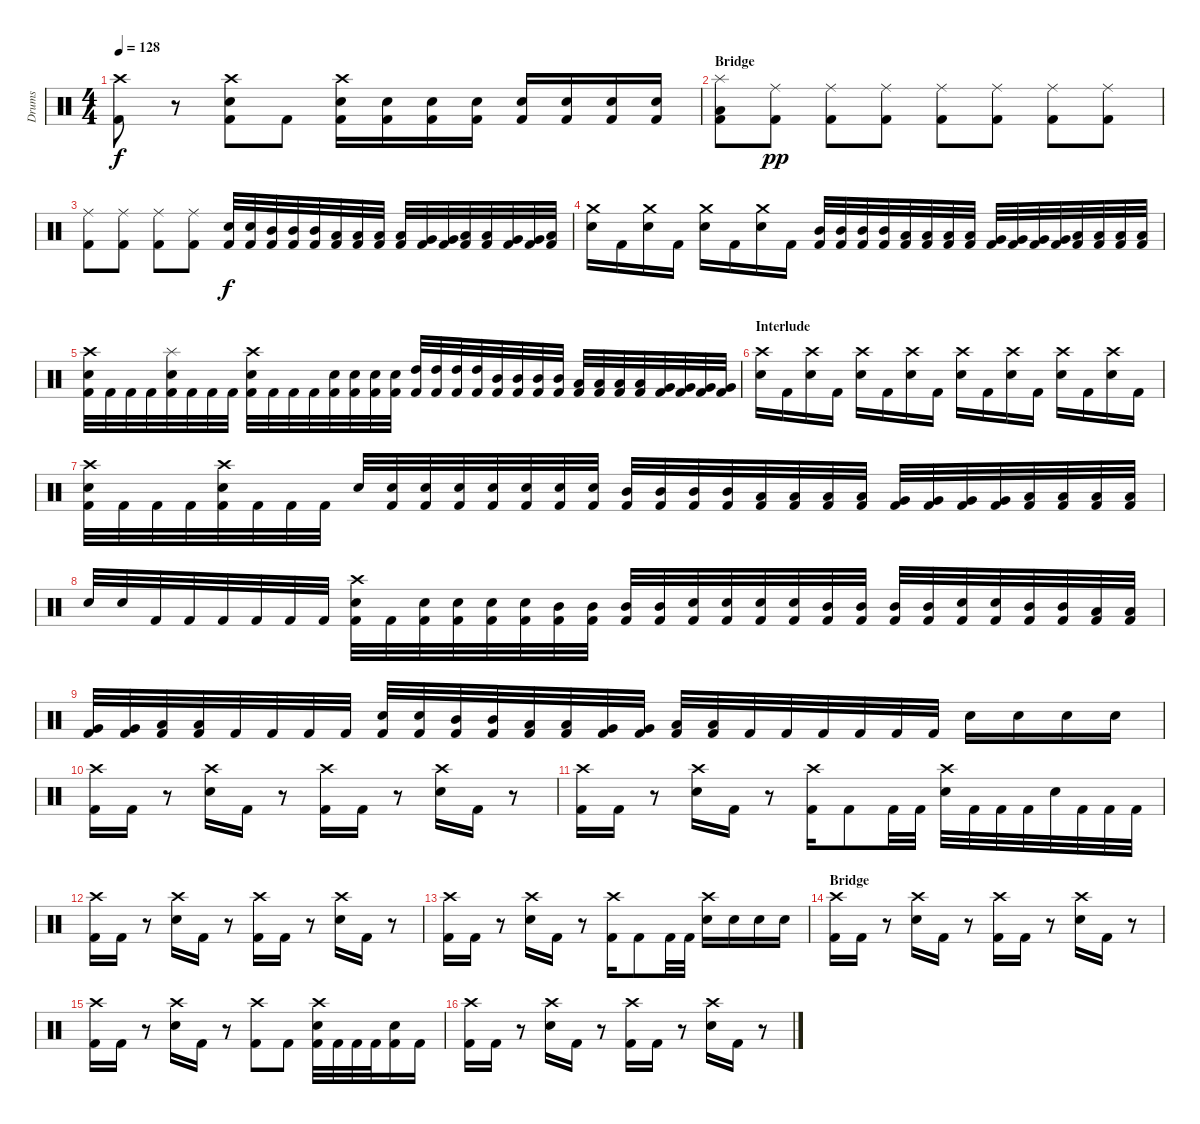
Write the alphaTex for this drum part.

\track ("Drums" "Drums") {instrument percussion}
\staff {score}
\articulation defaults
\ts (4 4)
\tempo 128
\clef neutral
\ks c
("Crash high (hit)" "Kick (hit) 2").8{dy f} r.8 ("Crash high (hit)" "Electric Snare (hit)" "Kick (hit) 2").8 "Kick (hit) 2".8 ("Crash high (hit)" "Electric Snare (hit)" "Kick (hit) 2").16 ("Electric Snare (hit)" "Kick (hit) 2").16 ("Electric Snare (hit)" "Kick (hit) 2").16 ("Electric Snare (hit)" "Kick (hit) 2").16 ("Electric Snare (hit)" "Kick (hit) 2").16 ("Electric Snare (hit)" "Kick (hit) 2").16 ("Electric Snare (hit)" "Kick (hit) 2").16 ("Electric Snare (hit)" "Kick (hit) 2").16 |
\section ("" "Bridge")
("Splash (hit)" "Low Floor Tom (hit)" "Kick (hit) 2").8 ("Ride (middle)" "Kick (hit) 2").8{dy pp} ("Ride (middle)" "Kick (hit) 2").8 ("Ride (middle)" "Kick (hit) 2").8 ("Ride (middle)" "Kick (hit) 2").8 ("Ride (middle)" "Kick (hit) 2").8 ("Ride (middle)" "Kick (hit) 2").8 ("Ride (middle)" "Kick (hit) 2").8 |
("Ride (middle)" "Kick (hit) 2").8 ("Ride (middle)" "Kick (hit) 2").8 ("Ride (middle)" "Kick (hit) 2").8 ("Ride (middle)" "Kick (hit) 2").8 ("Electric Snare (hit)" "Kick (hit) 2").32{dy f} ("Electric Snare (hit)" "Kick (hit) 2").32 ("Mid Tom (hit)" "Kick (hit) 2").32 ("Mid Tom (hit)" "Kick (hit) 2").32 ("Mid Tom (hit)" "Kick (hit) 2").32 ("Low Tom (hit)" "Kick (hit) 2").32 ("Low Tom (hit)" "Kick (hit) 2").32 ("Low Tom (hit)" "Kick (hit) 2").32 ("Low Tom (hit)" "Kick (hit) 2").32 ("Very Low Tom (hit)" "Kick (hit) 2").32 ("Very Low Tom (hit)" "Kick (hit) 2").32 ("Low Floor Tom (hit)" "Kick (hit) 2").32 ("Low Floor Tom (hit)" "Kick (hit) 2").32 ("Very Low Tom (hit)" "Kick (hit) 2").32 ("Very Low Tom (hit)" "Kick (hit) 2").32 ("Low Floor Tom (hit)" "Kick (hit) 2").32 |
("Crash medium (hit)" "Electric Snare (hit)").16 "Kick (hit) 2".16 ("Crash medium (hit)" "Electric Snare (hit)").16 "Kick (hit) 2".16 ("Crash medium (hit)" "Electric Snare (hit)").16 "Kick (hit) 2".16 ("Crash medium (hit)" "Electric Snare (hit)").16 "Kick (hit) 2".16 ("Mid Tom (hit)" "Kick (hit) 2").32 ("Mid Tom (hit)" "Kick (hit) 2").32 ("Mid Tom (hit)" "Kick (hit) 2").32 ("Mid Tom (hit)" "Kick (hit) 2").32 ("Low Tom (hit)" "Kick (hit) 2").32 ("Low Tom (hit)" "Kick (hit) 2").32 ("Low Tom (hit)" "Kick (hit) 2").32 ("Low Tom (hit)" "Kick (hit) 2").32 ("Very Low Tom (hit)" "Kick (hit) 2").32 ("Very Low Tom (hit)" "Kick (hit) 2").32 ("Very Low Tom (hit)" "Kick (hit) 2").32 ("Very Low Tom (hit)" "Kick (hit) 2").32 ("Low Floor Tom (hit)" "Kick (hit) 2").32 ("Low Floor Tom (hit)" "Kick (hit) 2").32 ("Low Floor Tom (hit)" "Kick (hit) 2").32 ("Low Floor Tom (hit)" "Kick (hit) 2").32 |
("Crash high (hit)" "Electric Snare (hit)" "Kick (hit) 2").32 "Kick (hit) 2".32 "Kick (hit) 2".32 "Kick (hit) 2".32 ("Splash (hit)" "Electric Snare (hit)" "Kick (hit) 2").32 "Kick (hit) 2".32 "Kick (hit) 2".32 "Kick (hit) 2".32 ("Crash high (hit)" "Electric Snare (hit)" "Kick (hit) 2").32 "Kick (hit) 2".32 "Kick (hit) 2".32 "Kick (hit) 2".32 ("Electric Snare (hit)" "Kick (hit) 2").32 ("Electric Snare (hit)" "Kick (hit) 2").32 ("Electric Snare (hit)" "Kick (hit) 2").32 ("Electric Snare (hit)" "Kick (hit) 2").32 ("High Tom (hit)" "Kick (hit) 2").32 ("High Tom (hit)" "Kick (hit) 2").32 ("High Tom (hit)" "Kick (hit) 2").32 ("High Tom (hit)" "Kick (hit) 2").32 ("Mid Tom (hit)" "Kick (hit) 2").32 ("Mid Tom (hit)" "Kick (hit) 2").32 ("Mid Tom (hit)" "Kick (hit) 2").32 ("Mid Tom (hit)" "Kick (hit) 2").32 ("Low Tom (hit)" "Kick (hit) 2").32 ("Low Tom (hit)" "Kick (hit) 2").32 ("Low Tom (hit)" "Kick (hit) 2").32 ("Low Tom (hit)" "Kick (hit) 2").32 ("Very Low Tom (hit)" "Kick (hit) 2").32 ("Very Low Tom (hit)" "Kick (hit) 2").32 ("Very Low Tom (hit)" "Kick (hit) 2").32 ("Very Low Tom (hit)" "Kick (hit) 2").32 |
\section ("" "Interlude")
("Crash high (hit)" "Electric Snare (hit)").16 "Kick (hit) 2".16 ("Crash high (hit)" "Electric Snare (hit)").16 "Kick (hit) 2".16 ("Crash high (hit)" "Electric Snare (hit)").16 "Kick (hit) 2".16 ("Crash high (hit)" "Electric Snare (hit)").16 "Kick (hit) 2".16 ("Crash high (hit)" "Electric Snare (hit)").16 "Kick (hit) 2".16 ("Crash high (hit)" "Electric Snare (hit)").16 "Kick (hit) 2".16 ("Crash high (hit)" "Electric Snare (hit)").16 "Kick (hit) 2".16 ("Crash high (hit)" "Electric Snare (hit)").16 "Kick (hit) 2".16 |
("Crash high (hit)" "Electric Snare (hit)" "Kick (hit) 2").32 "Kick (hit) 2".32 "Kick (hit) 2".32 "Kick (hit) 2".32 ("Crash high (hit)" "Electric Snare (hit)" "Kick (hit) 2").32 "Kick (hit) 2".32 "Kick (hit) 2".32 "Kick (hit) 2".32 "Electric Snare (hit)".32 ("Electric Snare (hit)" "Kick (hit) 2").32 ("Electric Snare (hit)" "Kick (hit) 2").32 ("Electric Snare (hit)" "Kick (hit) 2").32 ("Electric Snare (hit)" "Kick (hit) 2").32 ("Electric Snare (hit)" "Kick (hit) 2").32 ("Electric Snare (hit)" "Kick (hit) 2").32 ("Electric Snare (hit)" "Kick (hit) 2").32 ("Mid Tom (hit)" "Kick (hit) 2").32 ("Mid Tom (hit)" "Kick (hit) 2").32 ("Mid Tom (hit)" "Kick (hit) 2").32 ("Mid Tom (hit)" "Kick (hit) 2").32 ("Low Tom (hit)" "Kick (hit) 2").32 ("Low Tom (hit)" "Kick (hit) 2").32 ("Low Tom (hit)" "Kick (hit) 2").32 ("Low Tom (hit)" "Kick (hit) 2").32 ("Very Low Tom (hit)" "Kick (hit) 2").32 ("Very Low Tom (hit)" "Kick (hit) 2").32 ("Very Low Tom (hit)" "Kick (hit) 2").32 ("Very Low Tom (hit)" "Kick (hit) 2").32 ("Low Floor Tom (hit)" "Kick (hit) 2").32 ("Low Floor Tom (hit)" "Kick (hit) 2").32 ("Low Floor Tom (hit)" "Kick (hit) 2").32 ("Low Floor Tom (hit)" "Kick (hit) 2").32 |
"Electric Snare (hit)".32 "Electric Snare (hit)".32 "Kick (hit) 2".32 "Kick (hit) 2".32 "Kick (hit) 2".32 "Kick (hit) 2".32 "Kick (hit) 2".32 "Kick (hit) 2".32 ("Crash high (hit)" "Electric Snare (hit)" "Kick (hit) 2").32 "Kick (hit) 2".32 ("Electric Snare (hit)" "Kick (hit) 2").32 ("Electric Snare (hit)" "Kick (hit) 2").32 ("Electric Snare (hit)" "Kick (hit) 2").32 ("Electric Snare (hit)" "Kick (hit) 2").32 ("Mid Tom (hit)" "Kick (hit) 2").32 ("Mid Tom (hit)" "Kick (hit) 2").32 ("Mid Tom (hit)" "Kick (hit) 2").32 ("Mid Tom (hit)" "Kick (hit) 2").32 ("Electric Snare (hit)" "Kick (hit) 2").32 ("Electric Snare (hit)" "Kick (hit) 2").32 ("Electric Snare (hit)" "Kick (hit) 2").32 ("Electric Snare (hit)" "Kick (hit) 2").32 ("Mid Tom (hit)" "Kick (hit) 2").32 ("Mid Tom (hit)" "Kick (hit) 2").32 ("Mid Tom (hit)" "Kick (hit) 2").32 ("Mid Tom (hit)" "Kick (hit) 2").32 ("Electric Snare (hit)" "Kick (hit) 2").32 ("Electric Snare (hit)" "Kick (hit) 2").32 ("Mid Tom (hit)" "Kick (hit) 2").32 ("Mid Tom (hit)" "Kick (hit) 2").32 ("Low Tom (hit)" "Kick (hit) 2").32 ("Low Tom (hit)" "Kick (hit) 2").32 |
("Very Low Tom (hit)" "Kick (hit) 2").32 ("Very Low Tom (hit)" "Kick (hit) 2").32 ("Low Floor Tom (hit)" "Kick (hit) 2").32 ("Low Floor Tom (hit)" "Kick (hit) 2").32 "Kick (hit) 2".32 "Kick (hit) 2".32 "Kick (hit) 2".32 "Kick (hit) 2".32 ("Electric Snare (hit)" "Kick (hit) 2").32 ("Electric Snare (hit)" "Kick (hit) 2").32 ("Mid Tom (hit)" "Kick (hit) 2").32 ("Mid Tom (hit)" "Kick (hit) 2").32 ("Low Tom (hit)" "Kick (hit) 2").32 ("Low Tom (hit)" "Kick (hit) 2").32 ("Very Low Tom (hit)" "Kick (hit) 2").32 ("Very Low Tom (hit)" "Kick (hit) 2").32 ("Low Floor Tom (hit)" "Kick (hit) 2").32 ("Low Floor Tom (hit)" "Kick (hit) 2").32 "Kick (hit) 2".32 "Kick (hit) 2".32 "Kick (hit) 2".32 "Kick (hit) 2".32 "Kick (hit) 2".32 "Kick (hit) 2".32 "Electric Snare (hit)".16 "Electric Snare (hit)".16 "Electric Snare (hit)".16 "Electric Snare (hit)".16 |
("Crash high (hit)" "Kick (hit) 2").16 "Kick (hit) 2".16 r.8 ("Crash high (hit)" "Electric Snare (hit)").16 "Kick (hit) 2".16 r.8 ("Crash high (hit)" "Kick (hit) 2").16 "Kick (hit) 2".16 r.8 ("Crash high (hit)" "Electric Snare (hit)").16 "Kick (hit) 2".16 r.8 |
("Crash high (hit)" "Kick (hit) 2").16 "Kick (hit) 2".16 r.8 ("Crash high (hit)" "Electric Snare (hit)").16 "Kick (hit) 2".16 r.8 ("Crash high (hit)" "Kick (hit) 2").16 "Kick (hit) 2".8 "Kick (hit) 2".32 "Kick (hit) 2".32 ("Crash high (hit)" "Electric Snare (hit)").32 "Kick (hit) 2".32 "Kick (hit) 2".32 "Kick (hit) 2".32 "Electric Snare (hit)".32 "Kick (hit) 2".32 "Kick (hit) 2".32 "Kick (hit) 2".32 |
("Crash high (hit)" "Kick (hit) 2").16 "Kick (hit) 2".16 r.8 ("Crash high (hit)" "Electric Snare (hit)").16 "Kick (hit) 2".16 r.8 ("Crash high (hit)" "Kick (hit) 2").16 "Kick (hit) 2".16 r.8 ("Crash high (hit)" "Electric Snare (hit)").16 "Kick (hit) 2".16 r.8 |
("Crash high (hit)" "Kick (hit) 2").16 "Kick (hit) 2".16 r.8 ("Crash high (hit)" "Electric Snare (hit)").16 "Kick (hit) 2".16 r.8 ("Crash high (hit)" "Kick (hit) 2").16 "Kick (hit) 2".8 "Kick (hit) 2".32 "Kick (hit) 2".32 ("Crash high (hit)" "Electric Snare (hit)").16 "Electric Snare (hit)".16 "Electric Snare (hit)".16 "Electric Snare (hit)".16 |
\section ("" "Bridge")
("Crash high (hit)" "Kick (hit) 2").16 "Kick (hit) 2".16 r.8 ("Crash high (hit)" "Electric Snare (hit)").16 "Kick (hit) 2".16 r.8 ("Crash high (hit)" "Kick (hit) 2").16 "Kick (hit) 2".16 r.8 ("Crash high (hit)" "Electric Snare (hit)").16 "Kick (hit) 2".16 r.8 |
("Crash high (hit)" "Kick (hit) 2").16 "Kick (hit) 2".16 r.8 ("Crash high (hit)" "Electric Snare (hit)").16 "Kick (hit) 2".16 r.8 ("Crash high (hit)" "Kick (hit) 2").8 "Kick (hit) 2".8 ("Crash high (hit)" "Electric Snare (hit)" "Kick (hit) 2").32 "Kick (hit) 2".32 "Kick (hit) 2".32 "Kick (hit) 2".32 ("Electric Snare (hit)" "Kick (hit) 2").16 "Kick (hit) 2".16 |
("Crash high (hit)" "Kick (hit) 2").16 "Kick (hit) 2".16 r.8 ("Crash high (hit)" "Electric Snare (hit)").16 "Kick (hit) 2".16 r.8 ("Crash high (hit)" "Kick (hit) 2").16 "Kick (hit) 2".16 r.8 ("Crash high (hit)" "Electric Snare (hit)").16 "Kick (hit) 2".16 r.8
